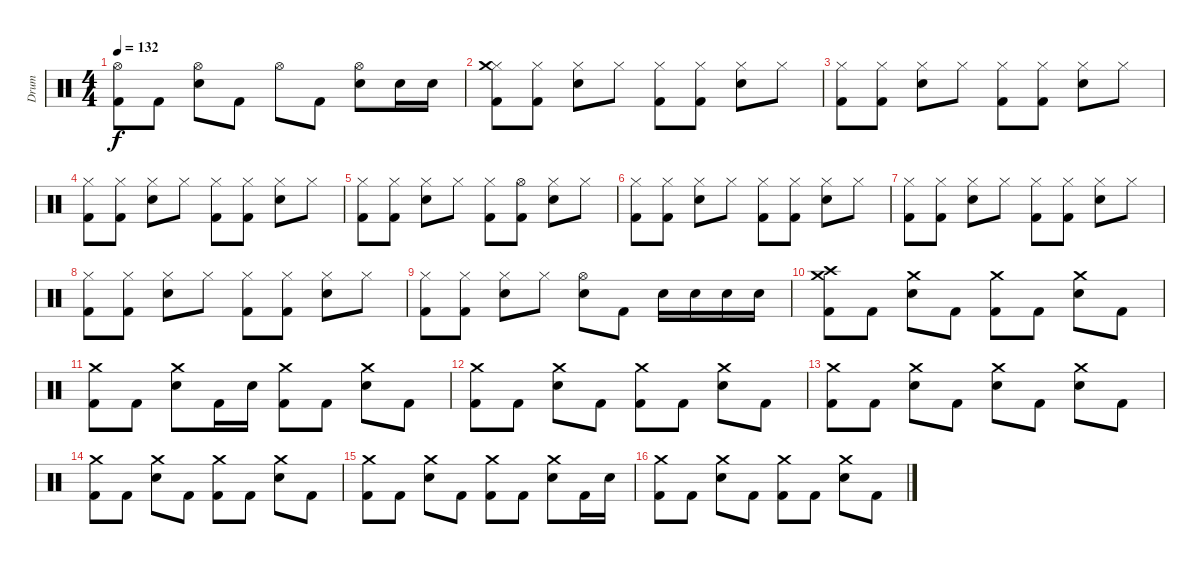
\track ("Drum" "Drum") {instrument percussion}
\staff {score}
\articulation defaults
\ts (4 4)
\tempo 132
\clef neutral
\ks c
("Hi-Hat (open)" "Kick (hit) 2").8{dy f} "Kick (hit) 2".8 ("Hi-Hat (open)" "Snare (hit) 2").8 "Kick (hit) 2".8 "Hi-Hat (open)".8 "Kick (hit) 2".8 ("Hi-Hat (open)" "Snare (hit) 2").8 "Snare (hit) 2".16 "Snare (hit) 2".16 |
("Hi-Hat (closed)" "Kick (hit) 2" "Crash medium (hit)").8 ("Hi-Hat (closed)" "Kick (hit) 2").8 ("Hi-Hat (closed)" "Snare (hit) 2").8 "Hi-Hat (closed)".8 ("Hi-Hat (closed)" "Kick (hit) 2").8 ("Hi-Hat (closed)" "Kick (hit) 2").8 ("Hi-Hat (closed)" "Snare (hit) 2").8 "Hi-Hat (closed)".8 |
("Hi-Hat (closed)" "Kick (hit) 2").8 ("Hi-Hat (closed)" "Kick (hit) 2").8 ("Hi-Hat (closed)" "Snare (hit) 2").8 "Hi-Hat (closed)".8 ("Hi-Hat (closed)" "Kick (hit) 2").8 ("Hi-Hat (closed)" "Kick (hit) 2").8 ("Hi-Hat (closed)" "Snare (hit) 2").8 "Hi-Hat (closed)".8 |
("Hi-Hat (closed)" "Kick (hit) 2").8 ("Hi-Hat (closed)" "Kick (hit) 2").8 ("Hi-Hat (closed)" "Snare (hit) 2").8 "Hi-Hat (closed)".8 ("Hi-Hat (closed)" "Kick (hit) 2").8 ("Hi-Hat (closed)" "Kick (hit) 2").8 ("Hi-Hat (closed)" "Snare (hit) 2").8 "Hi-Hat (closed)".8 |
("Hi-Hat (closed)" "Kick (hit) 2").8 ("Hi-Hat (closed)" "Kick (hit) 2").8 ("Hi-Hat (closed)" "Snare (hit) 2").8 "Hi-Hat (closed)".8 ("Hi-Hat (closed)" "Kick (hit) 2").8 ("Hi-Hat (open)" "Kick (hit) 2").8 ("Hi-Hat (closed)" "Snare (hit) 2").8 "Hi-Hat (closed)".8 |
("Hi-Hat (closed)" "Kick (hit) 2").8 ("Hi-Hat (closed)" "Kick (hit) 2").8 ("Hi-Hat (closed)" "Snare (hit) 2").8 "Hi-Hat (closed)".8 ("Hi-Hat (closed)" "Kick (hit) 2").8 ("Hi-Hat (closed)" "Kick (hit) 2").8 ("Hi-Hat (closed)" "Snare (hit) 2").8 "Hi-Hat (closed)".8 |
("Hi-Hat (closed)" "Kick (hit) 2").8 ("Hi-Hat (closed)" "Kick (hit) 2").8 ("Hi-Hat (closed)" "Snare (hit) 2").8 "Hi-Hat (closed)".8 ("Hi-Hat (closed)" "Kick (hit) 2").8 ("Hi-Hat (closed)" "Kick (hit) 2").8 ("Hi-Hat (closed)" "Snare (hit) 2").8 "Hi-Hat (closed)".8 |
("Hi-Hat (closed)" "Kick (hit) 2").8 ("Hi-Hat (closed)" "Kick (hit) 2").8 ("Hi-Hat (closed)" "Snare (hit) 2").8 "Hi-Hat (closed)".8 ("Hi-Hat (closed)" "Kick (hit) 2").8 ("Hi-Hat (closed)" "Kick (hit) 2").8 ("Hi-Hat (closed)" "Snare (hit) 2").8 "Hi-Hat (closed)".8 |
("Hi-Hat (closed)" "Kick (hit) 2").8 ("Hi-Hat (closed)" "Kick (hit) 2").8 ("Hi-Hat (closed)" "Snare (hit) 2").8 "Hi-Hat (closed)".8 ("Hi-Hat (open)" "Snare (hit) 2").8 "Kick (hit) 2".8 "Snare (hit) 2".16 "Snare (hit) 2".16 "Snare (hit) 2".16 "Snare (hit) 2".16 |
("Crash medium (hit)" "Kick (hit) 2" "Crash high (hit)").8 "Kick (hit) 2".8 ("Crash medium (hit)" "Snare (hit) 2").8 "Kick (hit) 2".8 ("Crash medium (hit)" "Kick (hit) 2").8 "Kick (hit) 2".8 ("Crash medium (hit)" "Snare (hit) 2").8 "Kick (hit) 2".8 |
("Crash medium (hit)" "Kick (hit) 2").8 "Kick (hit) 2".8 ("Crash medium (hit)" "Snare (hit) 2").8 "Kick (hit) 2".16 "Snare (hit) 2".16 ("Crash medium (hit)" "Kick (hit) 2").8 "Kick (hit) 2".8 ("Crash medium (hit)" "Snare (hit) 2").8 "Kick (hit) 2".8 |
("Crash medium (hit)" "Kick (hit) 2").8 "Kick (hit) 2".8 ("Crash medium (hit)" "Snare (hit) 2").8 "Kick (hit) 2".8 ("Crash medium (hit)" "Kick (hit) 2").8 "Kick (hit) 2".8 ("Crash medium (hit)" "Snare (hit) 2").8 "Kick (hit) 2".8 |
("Crash medium (hit)" "Kick (hit) 2").8 "Kick (hit) 2".8 ("Crash medium (hit)" "Snare (hit) 2").8 "Kick (hit) 2".8 ("Crash medium (hit)" "Snare (hit) 2").8 "Kick (hit) 2".8 ("Crash medium (hit)" "Snare (hit) 2").8 "Kick (hit) 2".8 |
("Crash medium (hit)" "Kick (hit) 2").8 "Kick (hit) 2".8 ("Crash medium (hit)" "Snare (hit) 2").8 "Kick (hit) 2".8 ("Crash medium (hit)" "Kick (hit) 2").8 "Kick (hit) 2".8 ("Crash medium (hit)" "Snare (hit) 2").8 "Kick (hit) 2".8 |
("Crash medium (hit)" "Kick (hit) 2").8 "Kick (hit) 2".8 ("Crash medium (hit)" "Snare (hit) 2").8 "Kick (hit) 2".8 ("Crash medium (hit)" "Kick (hit) 2").8 "Kick (hit) 2".8 ("Crash medium (hit)" "Snare (hit) 2").8 "Kick (hit) 2".16 "Snare (hit) 2".16 |
("Crash medium (hit)" "Kick (hit) 2").8 "Kick (hit) 2".8 ("Crash medium (hit)" "Snare (hit) 2").8 "Kick (hit) 2".8 ("Crash medium (hit)" "Kick (hit) 2").8 "Kick (hit) 2".8 ("Crash medium (hit)" "Snare (hit) 2").8 "Kick (hit) 2".8
